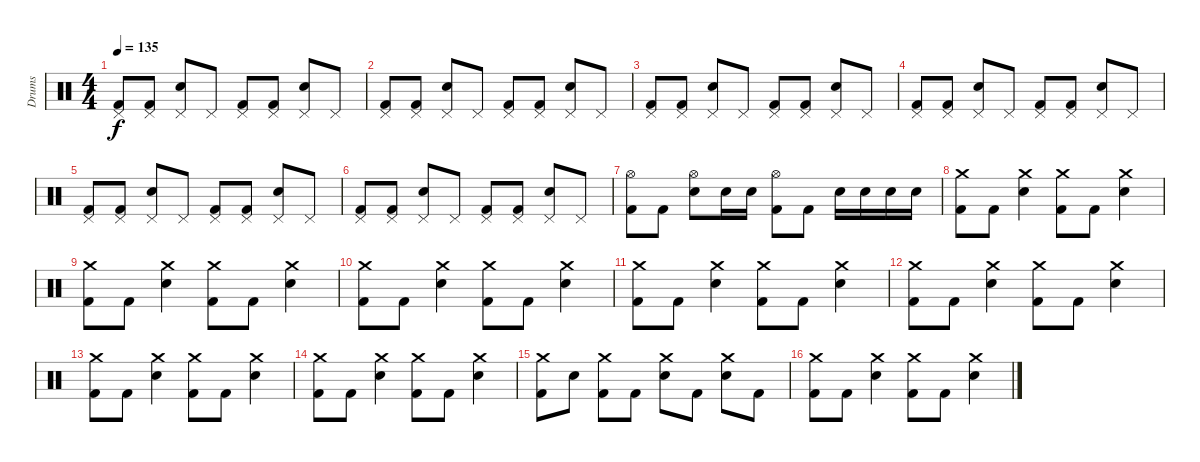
\track ("Drums" "Drums") {instrument percussion}
\staff {score}
\articulation defaults
\ts (4 4)
\tempo 135
\clef neutral
\ks c
("Pedal Hi-Hat (hit)" "Kick (hit) 2").8{dy f} ("Pedal Hi-Hat (hit)" "Kick (hit) 2").8 ("Pedal Hi-Hat (hit)" "Electric Snare (hit)").8 "Pedal Hi-Hat (hit)".8 ("Pedal Hi-Hat (hit)" "Kick (hit) 2").8 ("Pedal Hi-Hat (hit)" "Kick (hit) 2").8 ("Pedal Hi-Hat (hit)" "Electric Snare (hit)").8 "Pedal Hi-Hat (hit)".8 |
("Pedal Hi-Hat (hit)" "Kick (hit) 2").8 ("Pedal Hi-Hat (hit)" "Kick (hit) 2").8 ("Pedal Hi-Hat (hit)" "Electric Snare (hit)").8 "Pedal Hi-Hat (hit)".8 ("Pedal Hi-Hat (hit)" "Kick (hit) 2").8 ("Pedal Hi-Hat (hit)" "Kick (hit) 2").8 ("Pedal Hi-Hat (hit)" "Electric Snare (hit)").8 "Pedal Hi-Hat (hit)".8 |
("Pedal Hi-Hat (hit)" "Kick (hit) 2").8 ("Pedal Hi-Hat (hit)" "Kick (hit) 2").8 ("Pedal Hi-Hat (hit)" "Electric Snare (hit)").8 "Pedal Hi-Hat (hit)".8 ("Pedal Hi-Hat (hit)" "Kick (hit) 2").8 ("Pedal Hi-Hat (hit)" "Kick (hit) 2").8 ("Pedal Hi-Hat (hit)" "Electric Snare (hit)").8 "Pedal Hi-Hat (hit)".8 |
("Pedal Hi-Hat (hit)" "Kick (hit) 2").8 ("Pedal Hi-Hat (hit)" "Kick (hit) 2").8 ("Pedal Hi-Hat (hit)" "Electric Snare (hit)").8 "Pedal Hi-Hat (hit)".8 ("Pedal Hi-Hat (hit)" "Kick (hit) 2").8 ("Pedal Hi-Hat (hit)" "Kick (hit) 2").8 ("Pedal Hi-Hat (hit)" "Electric Snare (hit)").8 "Pedal Hi-Hat (hit)".8 |
("Pedal Hi-Hat (hit)" "Kick (hit) 2").8 ("Pedal Hi-Hat (hit)" "Kick (hit) 2").8 ("Pedal Hi-Hat (hit)" "Electric Snare (hit)").8 "Pedal Hi-Hat (hit)".8 ("Pedal Hi-Hat (hit)" "Kick (hit) 2").8 ("Pedal Hi-Hat (hit)" "Kick (hit) 2").8 ("Pedal Hi-Hat (hit)" "Electric Snare (hit)").8 "Pedal Hi-Hat (hit)".8 |
("Pedal Hi-Hat (hit)" "Kick (hit) 2").8 ("Pedal Hi-Hat (hit)" "Kick (hit) 2").8 ("Pedal Hi-Hat (hit)" "Electric Snare (hit)").8 "Pedal Hi-Hat (hit)".8 ("Pedal Hi-Hat (hit)" "Kick (hit) 2").8 ("Pedal Hi-Hat (hit)" "Kick (hit) 2").8 ("Pedal Hi-Hat (hit)" "Electric Snare (hit)").8 "Pedal Hi-Hat (hit)".8 |
("Hi-Hat (open)" "Kick (hit) 2").8 "Kick (hit) 2".8 ("Hi-Hat (open)" "Electric Snare (hit)").8 "Electric Snare (hit)".16 "Electric Snare (hit)".16 ("Hi-Hat (open)" "Kick (hit) 2").8 "Kick (hit) 2".8 "Electric Snare (hit)".16 "Electric Snare (hit)".16 "Electric Snare (hit)".16 "Electric Snare (hit)".16 |
("Crash medium (hit)" "Kick (hit) 2").8 "Kick (hit) 2".8 ("Crash medium (hit)" "Electric Snare (hit)").4 ("Crash medium (hit)" "Kick (hit) 2").8 "Kick (hit) 2".8 ("Crash medium (hit)" "Electric Snare (hit)").4 |
("Crash medium (hit)" "Kick (hit) 2").8 "Kick (hit) 2".8 ("Crash medium (hit)" "Electric Snare (hit)").4 ("Crash medium (hit)" "Kick (hit) 2").8 "Kick (hit) 2".8 ("Crash medium (hit)" "Electric Snare (hit)").4 |
("Crash medium (hit)" "Kick (hit) 2").8 "Kick (hit) 2".8 ("Crash medium (hit)" "Electric Snare (hit)").4 ("Crash medium (hit)" "Kick (hit) 2").8 "Kick (hit) 2".8 ("Crash medium (hit)" "Electric Snare (hit)").4 |
("Crash medium (hit)" "Kick (hit) 2").8 "Kick (hit) 2".8 ("Crash medium (hit)" "Electric Snare (hit)").4 ("Crash medium (hit)" "Kick (hit) 2").8 "Kick (hit) 2".8 ("Crash medium (hit)" "Electric Snare (hit)").4 |
("Crash medium (hit)" "Kick (hit) 2").8 "Kick (hit) 2".8 ("Crash medium (hit)" "Electric Snare (hit)").4 ("Crash medium (hit)" "Kick (hit) 2").8 "Kick (hit) 2".8 ("Crash medium (hit)" "Electric Snare (hit)").4 |
("Crash medium (hit)" "Kick (hit) 2").8 "Kick (hit) 2".8 ("Crash medium (hit)" "Electric Snare (hit)").4 ("Crash medium (hit)" "Kick (hit) 2").8 "Kick (hit) 2".8 ("Crash medium (hit)" "Electric Snare (hit)").4 |
("Crash medium (hit)" "Kick (hit) 2").8 "Kick (hit) 2".8 ("Crash medium (hit)" "Electric Snare (hit)").4 ("Crash medium (hit)" "Kick (hit) 2").8 "Kick (hit) 2".8 ("Crash medium (hit)" "Electric Snare (hit)").4 |
("Crash medium (hit)" "Kick (hit) 2").8 "Electric Snare (hit)".8 ("Crash medium (hit)" "Kick (hit) 2").8 "Kick (hit) 2".8 ("Crash medium (hit)" "Electric Snare (hit)").8 "Kick (hit) 2".8 ("Crash medium (hit)" "Electric Snare (hit)").8 "Kick (hit) 2".8 |
("Crash medium (hit)" "Kick (hit) 2").8 "Kick (hit) 2".8 ("Crash medium (hit)" "Electric Snare (hit)").4 ("Crash medium (hit)" "Kick (hit) 2").8 "Kick (hit) 2".8 ("Crash medium (hit)" "Electric Snare (hit)").4
